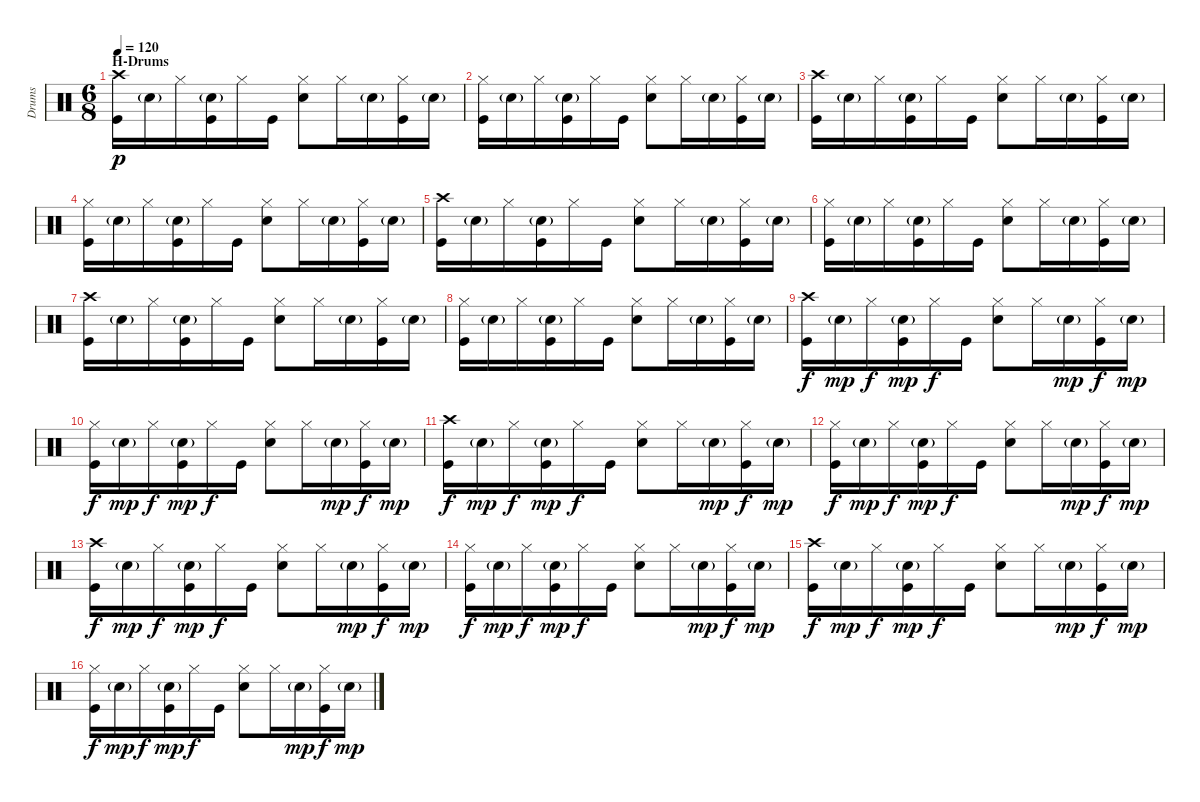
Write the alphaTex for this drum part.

\track ("Drums" "Drums") {instrument percussion}
\staff {score}
\articulation defaults
\ts (6 8)
\section ("" "H-Drums")
\tempo 120
\clef neutral
\ks c
("Kick (hit)" "Crash high (hit)").16{dy p} "Electric Snare (hit)"{g}.16 "Hi-Hat (closed)".16 ("Kick (hit)" "Electric Snare (hit)"{g}).16 "Hi-Hat (closed)".16 "Kick (hit)".16 ("Electric Snare (hit)" "Hi-Hat (closed)").8 "Hi-Hat (closed)".16 "Electric Snare (hit)"{g}.16 ("Kick (hit)" "Hi-Hat (closed)").16 "Electric Snare (hit)"{g}.16 |
("Kick (hit)" "Hi-Hat (closed)").16 "Electric Snare (hit)"{g}.16 "Hi-Hat (closed)".16 ("Kick (hit)" "Electric Snare (hit)"{g}).16 "Hi-Hat (closed)".16 "Kick (hit)".16 ("Electric Snare (hit)" "Hi-Hat (closed)").8 "Hi-Hat (closed)".16 "Electric Snare (hit)"{g}.16 ("Kick (hit)" "Hi-Hat (closed)").16 "Electric Snare (hit)"{g}.16 |
("Kick (hit)" "Crash high (hit)").16 "Electric Snare (hit)"{g}.16 "Hi-Hat (closed)".16 ("Kick (hit)" "Electric Snare (hit)"{g}).16 "Hi-Hat (closed)".16 "Kick (hit)".16 ("Electric Snare (hit)" "Hi-Hat (closed)").8 "Hi-Hat (closed)".16 "Electric Snare (hit)"{g}.16 ("Kick (hit)" "Hi-Hat (closed)").16 "Electric Snare (hit)"{g}.16 |
("Kick (hit)" "Hi-Hat (closed)").16 "Electric Snare (hit)"{g}.16 "Hi-Hat (closed)".16 ("Kick (hit)" "Electric Snare (hit)"{g}).16 "Hi-Hat (closed)".16 "Kick (hit)".16 ("Electric Snare (hit)" "Hi-Hat (closed)").8 "Hi-Hat (closed)".16 "Electric Snare (hit)"{g}.16 ("Kick (hit)" "Hi-Hat (closed)").16 "Electric Snare (hit)"{g}.16 |
("Kick (hit)" "Crash high (hit)").16 "Electric Snare (hit)"{g}.16 "Hi-Hat (closed)".16 ("Kick (hit)" "Electric Snare (hit)"{g}).16 "Hi-Hat (closed)".16 "Kick (hit)".16 ("Electric Snare (hit)" "Hi-Hat (closed)").8 "Hi-Hat (closed)".16 "Electric Snare (hit)"{g}.16 ("Kick (hit)" "Hi-Hat (closed)").16 "Electric Snare (hit)"{g}.16 |
("Kick (hit)" "Hi-Hat (closed)").16 "Electric Snare (hit)"{g}.16 "Hi-Hat (closed)".16 ("Kick (hit)" "Electric Snare (hit)"{g}).16 "Hi-Hat (closed)".16 "Kick (hit)".16 ("Electric Snare (hit)" "Hi-Hat (closed)").8 "Hi-Hat (closed)".16 "Electric Snare (hit)"{g}.16 ("Kick (hit)" "Hi-Hat (closed)").16 "Electric Snare (hit)"{g}.16 |
("Kick (hit)" "Crash high (hit)").16 "Electric Snare (hit)"{g}.16 "Hi-Hat (closed)".16 ("Kick (hit)" "Electric Snare (hit)"{g}).16 "Hi-Hat (closed)".16 "Kick (hit)".16 ("Electric Snare (hit)" "Hi-Hat (closed)").8 "Hi-Hat (closed)".16 "Electric Snare (hit)"{g}.16 ("Kick (hit)" "Hi-Hat (closed)").16 "Electric Snare (hit)"{g}.16 |
("Kick (hit)" "Hi-Hat (closed)").16 "Electric Snare (hit)"{g}.16 "Hi-Hat (closed)".16 ("Kick (hit)" "Electric Snare (hit)"{g}).16 "Hi-Hat (closed)".16 "Kick (hit)".16 ("Electric Snare (hit)" "Hi-Hat (closed)").8 "Hi-Hat (closed)".16 "Electric Snare (hit)"{g}.16 ("Kick (hit)" "Hi-Hat (closed)").16 "Electric Snare (hit)"{g}.16 |
("Kick (hit)" "Crash high (hit)").16{dy f} "Electric Snare (hit)"{g}.16{dy mp} "Hi-Hat (closed)".16{dy f} ("Kick (hit)" "Electric Snare (hit)"{g}).16{dy mp} "Hi-Hat (closed)".16{dy f} "Kick (hit)".16 ("Electric Snare (hit)" "Hi-Hat (closed)").8 "Hi-Hat (closed)".16 "Electric Snare (hit)"{g}.16{dy mp} ("Kick (hit)" "Hi-Hat (closed)").16{dy f} "Electric Snare (hit)"{g}.16{dy mp} |
("Kick (hit)" "Hi-Hat (closed)").16{dy f} "Electric Snare (hit)"{g}.16{dy mp} "Hi-Hat (closed)".16{dy f} ("Kick (hit)" "Electric Snare (hit)"{g}).16{dy mp} "Hi-Hat (closed)".16{dy f} "Kick (hit)".16 ("Electric Snare (hit)" "Hi-Hat (closed)").8 "Hi-Hat (closed)".16 "Electric Snare (hit)"{g}.16{dy mp} ("Kick (hit)" "Hi-Hat (closed)").16{dy f} "Electric Snare (hit)"{g}.16{dy mp} |
("Kick (hit)" "Crash high (hit)").16{dy f} "Electric Snare (hit)"{g}.16{dy mp} "Hi-Hat (closed)".16{dy f} ("Kick (hit)" "Electric Snare (hit)"{g}).16{dy mp} "Hi-Hat (closed)".16{dy f} "Kick (hit)".16 ("Electric Snare (hit)" "Hi-Hat (closed)").8 "Hi-Hat (closed)".16 "Electric Snare (hit)"{g}.16{dy mp} ("Kick (hit)" "Hi-Hat (closed)").16{dy f} "Electric Snare (hit)"{g}.16{dy mp} |
("Kick (hit)" "Hi-Hat (closed)").16{dy f} "Electric Snare (hit)"{g}.16{dy mp} "Hi-Hat (closed)".16{dy f} ("Kick (hit)" "Electric Snare (hit)"{g}).16{dy mp} "Hi-Hat (closed)".16{dy f} "Kick (hit)".16 ("Electric Snare (hit)" "Hi-Hat (closed)").8 "Hi-Hat (closed)".16 "Electric Snare (hit)"{g}.16{dy mp} ("Kick (hit)" "Hi-Hat (closed)").16{dy f} "Electric Snare (hit)"{g}.16{dy mp} |
("Kick (hit)" "Crash high (hit)").16{dy f} "Electric Snare (hit)"{g}.16{dy mp} "Hi-Hat (closed)".16{dy f} ("Kick (hit)" "Electric Snare (hit)"{g}).16{dy mp} "Hi-Hat (closed)".16{dy f} "Kick (hit)".16 ("Electric Snare (hit)" "Hi-Hat (closed)").8 "Hi-Hat (closed)".16 "Electric Snare (hit)"{g}.16{dy mp} ("Kick (hit)" "Hi-Hat (closed)").16{dy f} "Electric Snare (hit)"{g}.16{dy mp} |
("Kick (hit)" "Hi-Hat (closed)").16{dy f} "Electric Snare (hit)"{g}.16{dy mp} "Hi-Hat (closed)".16{dy f} ("Kick (hit)" "Electric Snare (hit)"{g}).16{dy mp} "Hi-Hat (closed)".16{dy f} "Kick (hit)".16 ("Electric Snare (hit)" "Hi-Hat (closed)").8 "Hi-Hat (closed)".16 "Electric Snare (hit)"{g}.16{dy mp} ("Kick (hit)" "Hi-Hat (closed)").16{dy f} "Electric Snare (hit)"{g}.16{dy mp} |
("Kick (hit)" "Crash high (hit)").16{dy f} "Electric Snare (hit)"{g}.16{dy mp} "Hi-Hat (closed)".16{dy f} ("Kick (hit)" "Electric Snare (hit)"{g}).16{dy mp} "Hi-Hat (closed)".16{dy f} "Kick (hit)".16 ("Electric Snare (hit)" "Hi-Hat (closed)").8 "Hi-Hat (closed)".16 "Electric Snare (hit)"{g}.16{dy mp} ("Kick (hit)" "Hi-Hat (closed)").16{dy f} "Electric Snare (hit)"{g}.16{dy mp} |
("Kick (hit)" "Hi-Hat (closed)").16{dy f} "Electric Snare (hit)"{g}.16{dy mp} "Hi-Hat (closed)".16{dy f} ("Kick (hit)" "Electric Snare (hit)"{g}).16{dy mp} "Hi-Hat (closed)".16{dy f} "Kick (hit)".16 ("Electric Snare (hit)" "Hi-Hat (closed)").8 "Hi-Hat (closed)".16 "Electric Snare (hit)"{g}.16{dy mp} ("Kick (hit)" "Hi-Hat (closed)").16{dy f} "Electric Snare (hit)"{g}.16{dy mp}
